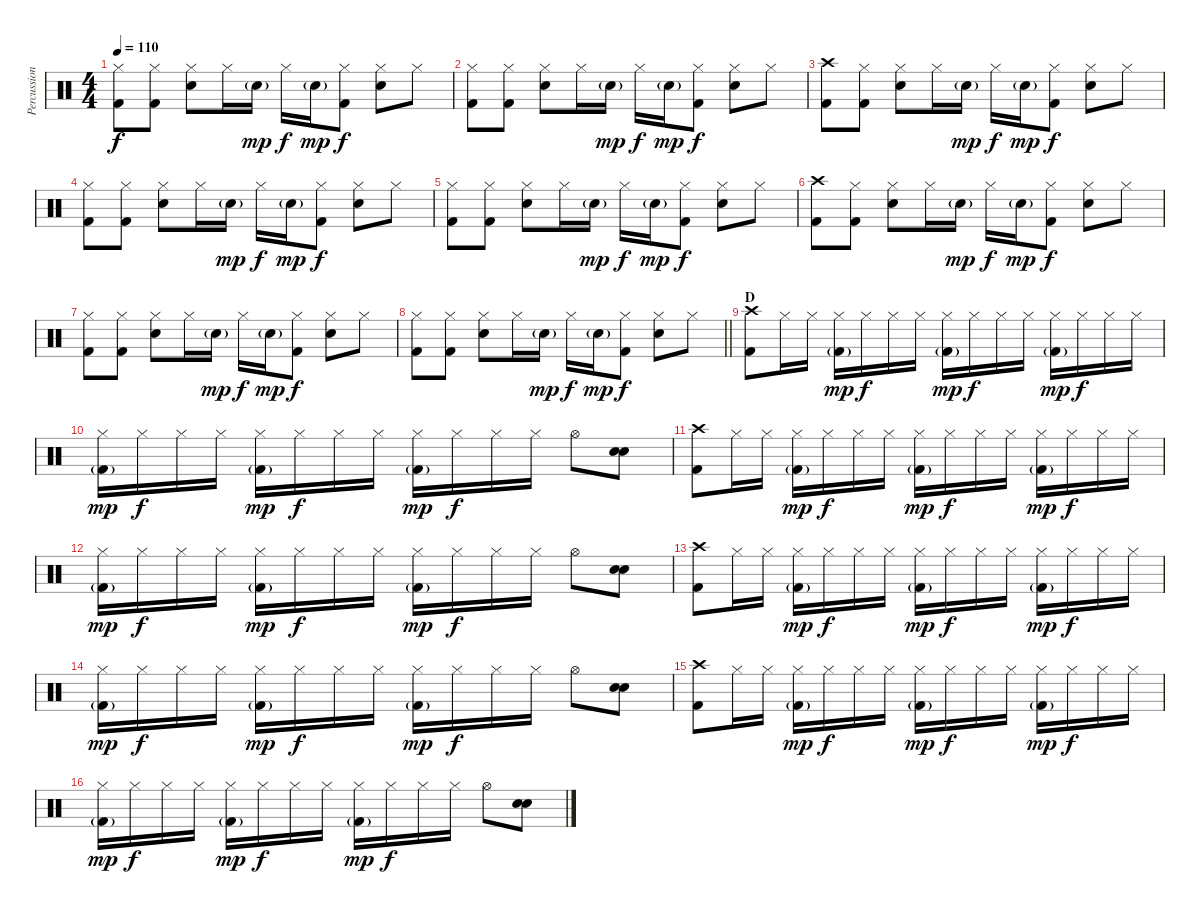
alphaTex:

\track ("Percussion" "Percussion") {instrument percussion}
\staff {score}
\articulation defaults
\ts (4 4)
\tempo 110
\clef neutral
\ks c
("Hi-Hat (closed)" "Kick (hit) 2").8{dy f} ("Hi-Hat (closed)" "Kick (hit) 2").8 ("Hi-Hat (closed)" "Electric Snare (hit)").8 "Hi-Hat (closed)".16 "Electric Snare (hit)"{g}.16{dy mp} "Hi-Hat (closed)".16{dy f} "Electric Snare (hit)"{g}.16{dy mp} ("Hi-Hat (closed)" "Kick (hit) 2").8{dy f} ("Hi-Hat (closed)" "Electric Snare (hit)").8 "Hi-Hat (closed)".8 |
("Hi-Hat (closed)" "Kick (hit) 2").8 ("Hi-Hat (closed)" "Kick (hit) 2").8 ("Hi-Hat (closed)" "Electric Snare (hit)").8 "Hi-Hat (closed)".16 "Electric Snare (hit)"{g}.16{dy mp} "Hi-Hat (closed)".16{dy f} "Electric Snare (hit)"{g}.16{dy mp} ("Hi-Hat (closed)" "Kick (hit) 2").8{dy f} ("Hi-Hat (closed)" "Electric Snare (hit)").8 "Hi-Hat (closed)".8 |
("Crash high (hit)" "Kick (hit) 2").8 ("Hi-Hat (closed)" "Kick (hit) 2").8 ("Hi-Hat (closed)" "Electric Snare (hit)").8 "Hi-Hat (closed)".16 "Electric Snare (hit)"{g}.16{dy mp} "Hi-Hat (closed)".16{dy f} "Electric Snare (hit)"{g}.16{dy mp} ("Hi-Hat (closed)" "Kick (hit) 2").8{dy f} ("Hi-Hat (closed)" "Electric Snare (hit)").8 "Hi-Hat (closed)".8 |
("Hi-Hat (closed)" "Kick (hit) 2").8 ("Hi-Hat (closed)" "Kick (hit) 2").8 ("Hi-Hat (closed)" "Electric Snare (hit)").8 "Hi-Hat (closed)".16 "Electric Snare (hit)"{g}.16{dy mp} "Hi-Hat (closed)".16{dy f} "Electric Snare (hit)"{g}.16{dy mp} ("Hi-Hat (closed)" "Kick (hit) 2").8{dy f} ("Hi-Hat (closed)" "Electric Snare (hit)").8 "Hi-Hat (closed)".8 |
("Hi-Hat (closed)" "Kick (hit) 2").8 ("Hi-Hat (closed)" "Kick (hit) 2").8 ("Hi-Hat (closed)" "Electric Snare (hit)").8 "Hi-Hat (closed)".16 "Electric Snare (hit)"{g}.16{dy mp} "Hi-Hat (closed)".16{dy f} "Electric Snare (hit)"{g}.16{dy mp} ("Hi-Hat (closed)" "Kick (hit) 2").8{dy f} ("Hi-Hat (closed)" "Electric Snare (hit)").8 "Hi-Hat (closed)".8 |
("Crash high (hit)" "Kick (hit) 2").8 ("Hi-Hat (closed)" "Kick (hit) 2").8 ("Hi-Hat (closed)" "Electric Snare (hit)").8 "Hi-Hat (closed)".16 "Electric Snare (hit)"{g}.16{dy mp} "Hi-Hat (closed)".16{dy f} "Electric Snare (hit)"{g}.16{dy mp} ("Hi-Hat (closed)" "Kick (hit) 2").8{dy f} ("Hi-Hat (closed)" "Electric Snare (hit)").8 "Hi-Hat (closed)".8 |
("Hi-Hat (closed)" "Kick (hit) 2").8 ("Hi-Hat (closed)" "Kick (hit) 2").8 ("Hi-Hat (closed)" "Electric Snare (hit)").8 "Hi-Hat (closed)".16 "Electric Snare (hit)"{g}.16{dy mp} "Hi-Hat (closed)".16{dy f} "Electric Snare (hit)"{g}.16{dy mp} ("Hi-Hat (closed)" "Kick (hit) 2").8{dy f} ("Hi-Hat (closed)" "Electric Snare (hit)").8 "Hi-Hat (closed)".8 |
\barLineRight lightlight
("Hi-Hat (closed)" "Kick (hit) 2").8 ("Hi-Hat (closed)" "Kick (hit) 2").8 ("Hi-Hat (closed)" "Electric Snare (hit)").8 "Hi-Hat (closed)".16 "Electric Snare (hit)"{g}.16{dy mp} "Hi-Hat (closed)".16{dy f} "Electric Snare (hit)"{g}.16{dy mp} ("Hi-Hat (closed)" "Kick (hit) 2").8{dy f} ("Hi-Hat (closed)" "Electric Snare (hit)").8 "Hi-Hat (closed)".8 |
\section ("" "D")
("Crash high (hit)" "Kick (hit) 2").8 "Hi-Hat (closed)".16 "Hi-Hat (closed)".16 ("Hi-Hat (closed)" "Kick (hit) 2"{g}).16{dy mp} "Hi-Hat (closed)".16{dy f} "Hi-Hat (closed)".16 "Hi-Hat (closed)".16 ("Hi-Hat (closed)" "Kick (hit) 2"{g}).16{dy mp} "Hi-Hat (closed)".16{dy f} "Hi-Hat (closed)".16 "Hi-Hat (closed)".16 ("Hi-Hat (closed)" "Kick (hit) 2"{g}).16{dy mp} "Hi-Hat (closed)".16{dy f} "Hi-Hat (closed)".16 "Hi-Hat (closed)".16 |
("Hi-Hat (closed)" "Kick (hit) 2"{g}).16{dy mp} "Hi-Hat (closed)".16{dy f} "Hi-Hat (closed)".16 "Hi-Hat (closed)".16 ("Hi-Hat (closed)" "Kick (hit) 2"{g}).16{dy mp} "Hi-Hat (closed)".16{dy f} "Hi-Hat (closed)".16 "Hi-Hat (closed)".16 ("Hi-Hat (closed)" "Kick (hit) 2"{g}).16{dy mp} "Hi-Hat (closed)".16{dy f} "Hi-Hat (closed)".16 "Hi-Hat (closed)".16 "Hi-Hat (open)".8 ("Electric Snare (hit)" "Electric Snare (hit)").8 |
("Crash high (hit)" "Kick (hit) 2").8 "Hi-Hat (closed)".16 "Hi-Hat (closed)".16 ("Hi-Hat (closed)" "Kick (hit) 2"{g}).16{dy mp} "Hi-Hat (closed)".16{dy f} "Hi-Hat (closed)".16 "Hi-Hat (closed)".16 ("Hi-Hat (closed)" "Kick (hit) 2"{g}).16{dy mp} "Hi-Hat (closed)".16{dy f} "Hi-Hat (closed)".16 "Hi-Hat (closed)".16 ("Hi-Hat (closed)" "Kick (hit) 2"{g}).16{dy mp} "Hi-Hat (closed)".16{dy f} "Hi-Hat (closed)".16 "Hi-Hat (closed)".16 |
("Hi-Hat (closed)" "Kick (hit) 2"{g}).16{dy mp} "Hi-Hat (closed)".16{dy f} "Hi-Hat (closed)".16 "Hi-Hat (closed)".16 ("Hi-Hat (closed)" "Kick (hit) 2"{g}).16{dy mp} "Hi-Hat (closed)".16{dy f} "Hi-Hat (closed)".16 "Hi-Hat (closed)".16 ("Hi-Hat (closed)" "Kick (hit) 2"{g}).16{dy mp} "Hi-Hat (closed)".16{dy f} "Hi-Hat (closed)".16 "Hi-Hat (closed)".16 "Hi-Hat (open)".8 ("Electric Snare (hit)" "Electric Snare (hit)").8 |
("Crash high (hit)" "Kick (hit) 2").8 "Hi-Hat (closed)".16 "Hi-Hat (closed)".16 ("Hi-Hat (closed)" "Kick (hit) 2"{g}).16{dy mp} "Hi-Hat (closed)".16{dy f} "Hi-Hat (closed)".16 "Hi-Hat (closed)".16 ("Hi-Hat (closed)" "Kick (hit) 2"{g}).16{dy mp} "Hi-Hat (closed)".16{dy f} "Hi-Hat (closed)".16 "Hi-Hat (closed)".16 ("Hi-Hat (closed)" "Kick (hit) 2"{g}).16{dy mp} "Hi-Hat (closed)".16{dy f} "Hi-Hat (closed)".16 "Hi-Hat (closed)".16 |
("Hi-Hat (closed)" "Kick (hit) 2"{g}).16{dy mp} "Hi-Hat (closed)".16{dy f} "Hi-Hat (closed)".16 "Hi-Hat (closed)".16 ("Hi-Hat (closed)" "Kick (hit) 2"{g}).16{dy mp} "Hi-Hat (closed)".16{dy f} "Hi-Hat (closed)".16 "Hi-Hat (closed)".16 ("Hi-Hat (closed)" "Kick (hit) 2"{g}).16{dy mp} "Hi-Hat (closed)".16{dy f} "Hi-Hat (closed)".16 "Hi-Hat (closed)".16 "Hi-Hat (open)".8 ("Electric Snare (hit)" "Electric Snare (hit)").8 |
("Crash high (hit)" "Kick (hit) 2").8 "Hi-Hat (closed)".16 "Hi-Hat (closed)".16 ("Hi-Hat (closed)" "Kick (hit) 2"{g}).16{dy mp} "Hi-Hat (closed)".16{dy f} "Hi-Hat (closed)".16 "Hi-Hat (closed)".16 ("Hi-Hat (closed)" "Kick (hit) 2"{g}).16{dy mp} "Hi-Hat (closed)".16{dy f} "Hi-Hat (closed)".16 "Hi-Hat (closed)".16 ("Hi-Hat (closed)" "Kick (hit) 2"{g}).16{dy mp} "Hi-Hat (closed)".16{dy f} "Hi-Hat (closed)".16 "Hi-Hat (closed)".16 |
("Hi-Hat (closed)" "Kick (hit) 2"{g}).16{dy mp} "Hi-Hat (closed)".16{dy f} "Hi-Hat (closed)".16 "Hi-Hat (closed)".16 ("Hi-Hat (closed)" "Kick (hit) 2"{g}).16{dy mp} "Hi-Hat (closed)".16{dy f} "Hi-Hat (closed)".16 "Hi-Hat (closed)".16 ("Hi-Hat (closed)" "Kick (hit) 2"{g}).16{dy mp} "Hi-Hat (closed)".16{dy f} "Hi-Hat (closed)".16 "Hi-Hat (closed)".16 "Hi-Hat (open)".8 ("Electric Snare (hit)" "Electric Snare (hit)").8
